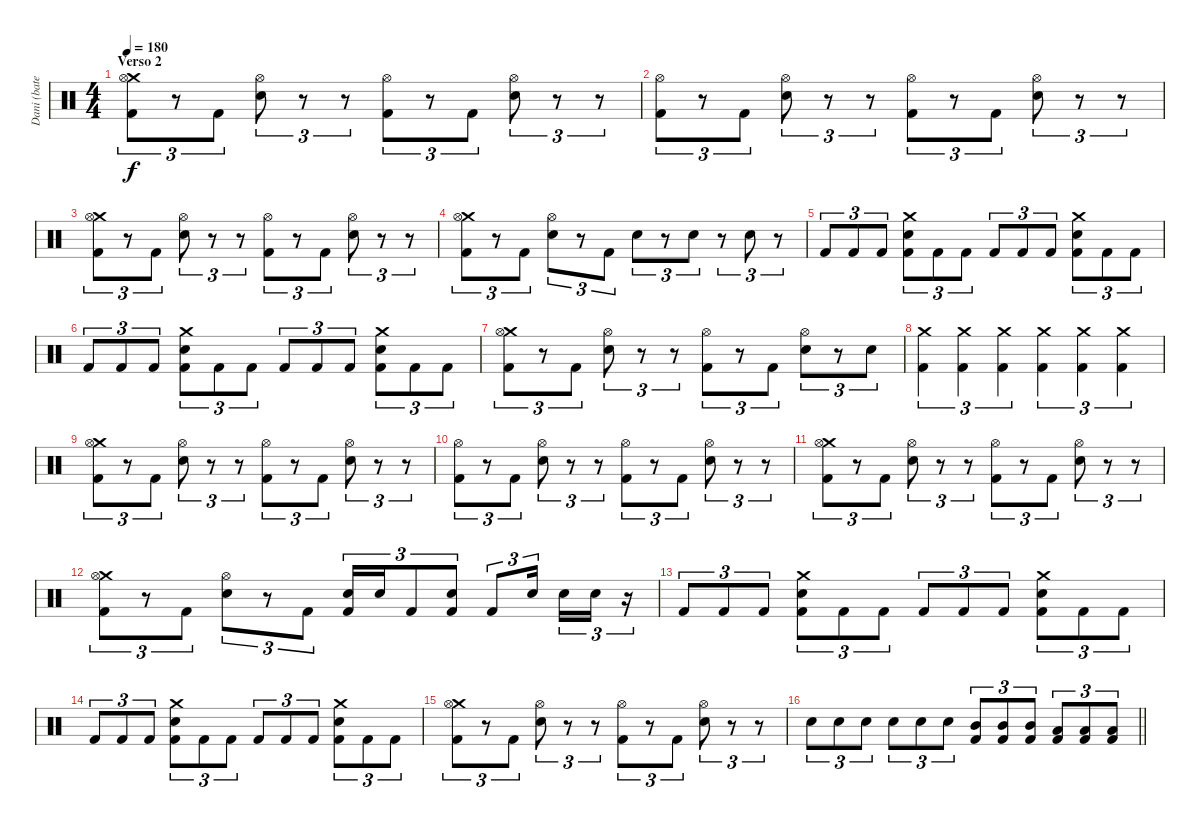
\track ("Dani (bateria)" "Dani (bate") {instrument percussion}
\staff {score}
\articulation defaults
\ts (4 4)
\section ("" "Verso 2")
\tempo 180
\clef neutral
\ks c
("Crash medium (hit)" "Hi-Hat (open)" "Kick (hit) 2").8{tu (3 2) dy f} r.8{tu (3 2)} "Kick (hit) 2".8{tu (3 2)} ("Hi-Hat (open)" "Electric Snare (hit)").8{tu (3 2)} r.8{tu (3 2)} r.8{tu (3 2)} ("Hi-Hat (open)" "Kick (hit) 2").8{tu (3 2)} r.8{tu (3 2)} "Kick (hit) 2".8{tu (3 2)} ("Hi-Hat (open)" "Electric Snare (hit)").8{tu (3 2)} r.8{tu (3 2)} r.8{tu (3 2)} |
("Hi-Hat (open)" "Kick (hit) 2").8{tu (3 2)} r.8{tu (3 2)} "Kick (hit) 2".8{tu (3 2)} ("Hi-Hat (open)" "Electric Snare (hit)").8{tu (3 2)} r.8{tu (3 2)} r.8{tu (3 2)} ("Hi-Hat (open)" "Kick (hit) 2").8{tu (3 2)} r.8{tu (3 2)} "Kick (hit) 2".8{tu (3 2)} ("Hi-Hat (open)" "Electric Snare (hit)").8{tu (3 2)} r.8{tu (3 2)} r.8{tu (3 2)} |
("Crash medium (hit)" "Hi-Hat (open)" "Kick (hit) 2").8{tu (3 2)} r.8{tu (3 2)} "Kick (hit) 2".8{tu (3 2)} ("Hi-Hat (open)" "Electric Snare (hit)").8{tu (3 2)} r.8{tu (3 2)} r.8{tu (3 2)} ("Hi-Hat (open)" "Kick (hit) 2").8{tu (3 2)} r.8{tu (3 2)} "Kick (hit) 2".8{tu (3 2)} ("Hi-Hat (open)" "Electric Snare (hit)").8{tu (3 2)} r.8{tu (3 2)} r.8{tu (3 2)} |
("Crash medium (hit)" "Hi-Hat (open)" "Kick (hit) 2").8{tu (3 2)} r.8{tu (3 2)} "Kick (hit) 2".8{tu (3 2)} ("Hi-Hat (open)" "Electric Snare (hit)").8{tu (3 2)} r.8{tu (3 2)} "Kick (hit) 2".8{tu (3 2)} "Electric Snare (hit)".8{tu (3 2)} r.8{tu (3 2)} "Electric Snare (hit)".8{tu (3 2)} r.8{tu (3 2)} "Electric Snare (hit)".8{tu (3 2)} r.8{tu (3 2)} |
"Kick (hit) 2".8{tu (3 2)} "Kick (hit) 2".8{tu (3 2)} "Kick (hit) 2".8{tu (3 2)} ("Crash medium (hit)" "Electric Snare (hit)" "Kick (hit) 2").8{tu (3 2)} "Kick (hit) 2".8{tu (3 2)} "Kick (hit) 2".8{tu (3 2)} "Kick (hit) 2".8{tu (3 2)} "Kick (hit) 2".8{tu (3 2)} "Kick (hit) 2".8{tu (3 2)} ("Crash medium (hit)" "Electric Snare (hit)" "Kick (hit) 2").8{tu (3 2)} "Kick (hit) 2".8{tu (3 2)} "Kick (hit) 2".8{tu (3 2)} |
"Kick (hit) 2".8{tu (3 2)} "Kick (hit) 2".8{tu (3 2)} "Kick (hit) 2".8{tu (3 2)} ("Crash medium (hit)" "Electric Snare (hit)" "Kick (hit) 2").8{tu (3 2)} "Kick (hit) 2".8{tu (3 2)} "Kick (hit) 2".8{tu (3 2)} "Kick (hit) 2".8{tu (3 2)} "Kick (hit) 2".8{tu (3 2)} "Kick (hit) 2".8{tu (3 2)} ("Crash medium (hit)" "Electric Snare (hit)" "Kick (hit) 2").8{tu (3 2)} "Kick (hit) 2".8{tu (3 2)} "Kick (hit) 2".8{tu (3 2)} |
("Crash medium (hit)" "Hi-Hat (open)" "Kick (hit) 2").8{tu (3 2)} r.8{tu (3 2)} "Kick (hit) 2".8{tu (3 2)} ("Hi-Hat (open)" "Electric Snare (hit)").8{tu (3 2)} r.8{tu (3 2)} r.8{tu (3 2)} ("Hi-Hat (open)" "Kick (hit) 2").8{tu (3 2)} r.8{tu (3 2)} "Kick (hit) 2".8{tu (3 2)} ("Hi-Hat (open)" "Electric Snare (hit)").8{tu (3 2)} r.8{tu (3 2)} "Electric Snare (hit)".8{tu (3 2)} |
("Crash medium (hit)" "Kick (hit) 2").4{tu (3 2)} ("Crash medium (hit)" "Kick (hit) 2").4{tu (3 2)} ("Crash medium (hit)" "Kick (hit) 2").4{tu (3 2)} ("Crash medium (hit)" "Kick (hit) 2").4{tu (3 2)} ("Crash medium (hit)" "Kick (hit) 2").4{tu (3 2)} ("Crash medium (hit)" "Kick (hit) 2").4{tu (3 2)} |
("Crash medium (hit)" "Hi-Hat (open)" "Kick (hit) 2").8{tu (3 2)} r.8{tu (3 2)} "Kick (hit) 2".8{tu (3 2)} ("Hi-Hat (open)" "Electric Snare (hit)").8{tu (3 2)} r.8{tu (3 2)} r.8{tu (3 2)} ("Hi-Hat (open)" "Kick (hit) 2").8{tu (3 2)} r.8{tu (3 2)} "Kick (hit) 2".8{tu (3 2)} ("Hi-Hat (open)" "Electric Snare (hit)").8{tu (3 2)} r.8{tu (3 2)} r.8{tu (3 2)} |
("Hi-Hat (open)" "Kick (hit) 2").8{tu (3 2)} r.8{tu (3 2)} "Kick (hit) 2".8{tu (3 2)} ("Hi-Hat (open)" "Electric Snare (hit)").8{tu (3 2)} r.8{tu (3 2)} r.8{tu (3 2)} ("Hi-Hat (open)" "Kick (hit) 2").8{tu (3 2)} r.8{tu (3 2)} "Kick (hit) 2".8{tu (3 2)} ("Hi-Hat (open)" "Electric Snare (hit)").8{tu (3 2)} r.8{tu (3 2)} r.8{tu (3 2)} |
("Crash medium (hit)" "Hi-Hat (open)" "Kick (hit) 2").8{tu (3 2)} r.8{tu (3 2)} "Kick (hit) 2".8{tu (3 2)} ("Hi-Hat (open)" "Electric Snare (hit)").8{tu (3 2)} r.8{tu (3 2)} r.8{tu (3 2)} ("Hi-Hat (open)" "Kick (hit) 2").8{tu (3 2)} r.8{tu (3 2)} "Kick (hit) 2".8{tu (3 2)} ("Hi-Hat (open)" "Electric Snare (hit)").8{tu (3 2)} r.8{tu (3 2)} r.8{tu (3 2)} |
("Crash medium (hit)" "Hi-Hat (open)" "Kick (hit) 2").8{tu (3 2)} r.8{tu (3 2)} "Kick (hit) 2".8{tu (3 2)} ("Hi-Hat (open)" "Electric Snare (hit)").8{tu (3 2)} r.8{tu (3 2)} "Kick (hit) 2".8{tu (3 2)} ("Electric Snare (hit)" "Kick (hit) 2").16{tu (3 2)} "Electric Snare (hit)".16{tu (3 2)} "Kick (hit) 2".8{tu (3 2)} ("Electric Snare (hit)" "Kick (hit) 2").8{tu (3 2)} "Kick (hit) 2".8{tu (3 2)} "Electric Snare (hit)".16{tu (3 2) beam splitsecondary} "Electric Snare (hit)".16{tu (3 2)} "Electric Snare (hit)".16{tu (3 2)} r.16{tu (3 2)} |
"Kick (hit) 2".8{tu (3 2)} "Kick (hit) 2".8{tu (3 2)} "Kick (hit) 2".8{tu (3 2)} ("Crash medium (hit)" "Electric Snare (hit)" "Kick (hit) 2").8{tu (3 2)} "Kick (hit) 2".8{tu (3 2)} "Kick (hit) 2".8{tu (3 2)} "Kick (hit) 2".8{tu (3 2)} "Kick (hit) 2".8{tu (3 2)} "Kick (hit) 2".8{tu (3 2)} ("Crash medium (hit)" "Electric Snare (hit)" "Kick (hit) 2").8{tu (3 2)} "Kick (hit) 2".8{tu (3 2)} "Kick (hit) 2".8{tu (3 2)} |
"Kick (hit) 2".8{tu (3 2)} "Kick (hit) 2".8{tu (3 2)} "Kick (hit) 2".8{tu (3 2)} ("Crash medium (hit)" "Electric Snare (hit)" "Kick (hit) 2").8{tu (3 2)} "Kick (hit) 2".8{tu (3 2)} "Kick (hit) 2".8{tu (3 2)} "Kick (hit) 2".8{tu (3 2)} "Kick (hit) 2".8{tu (3 2)} "Kick (hit) 2".8{tu (3 2)} ("Crash medium (hit)" "Electric Snare (hit)" "Kick (hit) 2").8{tu (3 2)} "Kick (hit) 2".8{tu (3 2)} "Kick (hit) 2".8{tu (3 2)} |
("Crash medium (hit)" "Hi-Hat (open)" "Kick (hit) 2").8{tu (3 2)} r.8{tu (3 2)} "Kick (hit) 2".8{tu (3 2)} ("Hi-Hat (open)" "Electric Snare (hit)").8{tu (3 2)} r.8{tu (3 2)} r.8{tu (3 2)} ("Hi-Hat (open)" "Kick (hit) 2").8{tu (3 2)} r.8{tu (3 2)} "Kick (hit) 2".8{tu (3 2)} ("Hi-Hat (open)" "Electric Snare (hit)").8{tu (3 2)} r.8{tu (3 2)} r.8{tu (3 2)} |
\barLineRight lightlight "Electric Snare (hit)".8{tu (3 2)} "Electric Snare (hit)".8{tu (3 2)} "Electric Snare (hit)".8{tu (3 2)} "Electric Snare (hit)".8{tu (3 2)} "Electric Snare (hit)".8{tu (3 2)} "Electric Snare (hit)".8{tu (3 2)}
("Mid Tom (hit)" "Kick (hit) 2").8{tu (3 2)} ("Mid Tom (hit)" "Kick (hit) 2").8{tu (3 2)} ("Mid Tom (hit)" "Kick (hit) 2").8{tu (3 2)} ("Low Tom (hit)" "Kick (hit) 2").8{tu (3 2)} ("Low Tom (hit)" "Kick (hit) 2").8{tu (3 2)} ("Low Tom (hit)" "Kick (hit) 2").8{tu (3 2)}
